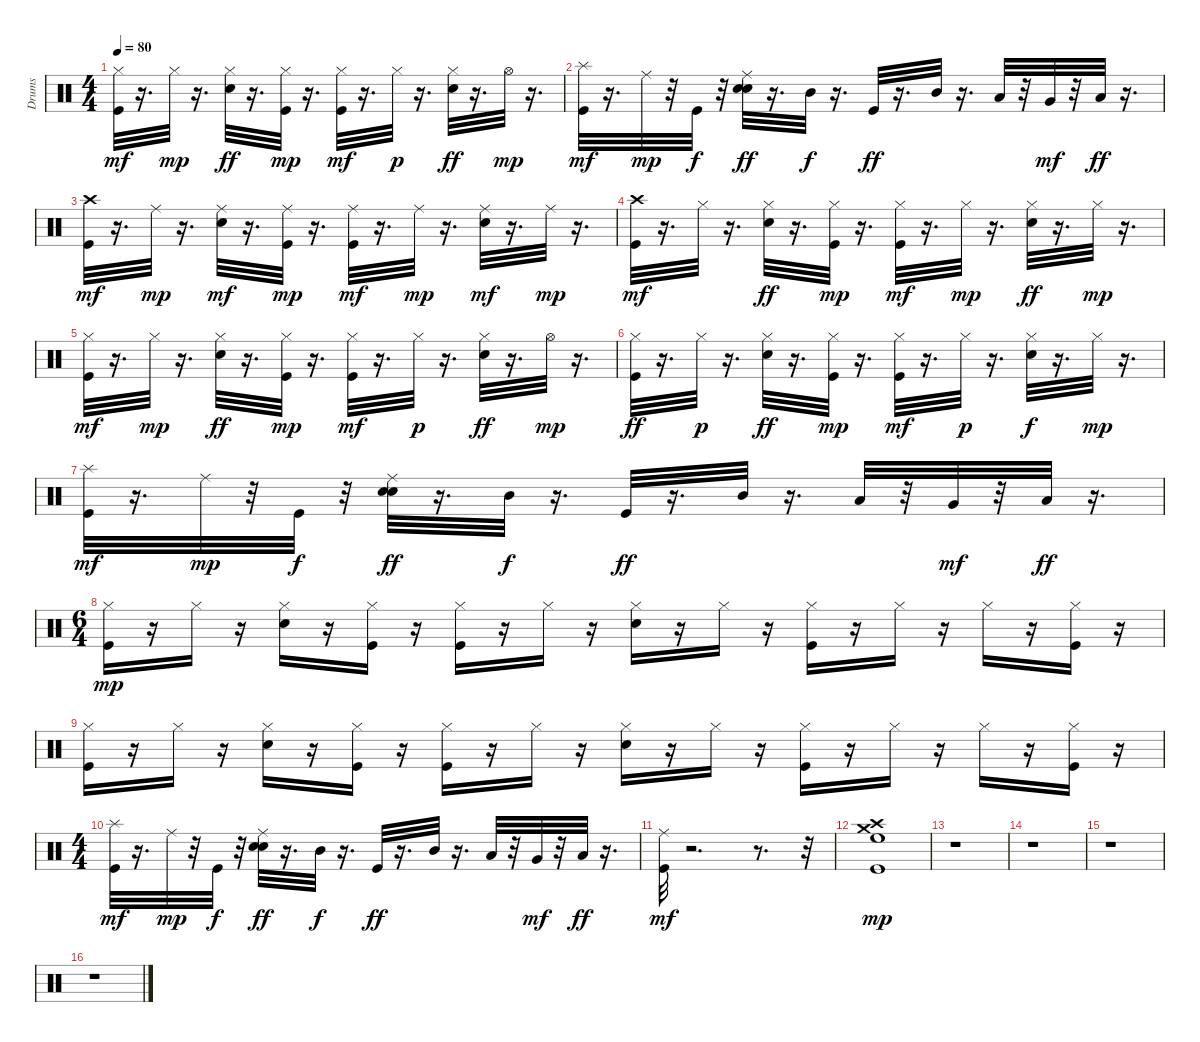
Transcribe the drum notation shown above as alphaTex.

\track ("Drums" "Drums") {instrument percussion}
\staff {score}
\articulation defaults
\ts (4 4)
\tempo 80
\clef neutral
\ks c
("Kick (hit)" "Hi-Hat (closed)").32{dy mf} r.16{d} "Hi-Hat (closed)".32{dy mp} r.16{d} ("Electric Snare (hit)" "Hi-Hat (closed)").32{dy ff} r.16{d} ("Kick (hit)" "Hi-Hat (closed)").32{dy mp} r.16{d} ("Kick (hit)" "Hi-Hat (closed)").32{dy mf} r.16{d} "Hi-Hat (closed)".32{dy p} r.16{d} ("Electric Snare (hit)" "Hi-Hat (closed)").32{dy ff} r.16{d} "Hi-Hat (open)".32{dy mp} r.16{d} |
("Kick (hit)" "Splash (hit)").32{dy mf} r.16{d} "Ride (middle)".32{dy mp} r.32 "Kick (hit)".32{dy f} r.32 ("Snare (hit) 2" "Ride (middle)" "Electric Snare (hit)").32{dy ff} r.16{d} "Mid Tom (hit)".32{dy f} r.16{d} "Kick (hit)".32{dy ff} r.16{d} "Mid Tom (hit)".32 r.16{d} "Low Tom (hit)".32 r.32 "Very Low Tom (hit)".32{dy mf} r.32 "Low Floor Tom (hit)".32{dy ff} r.16{d} |
("Kick (hit)" "Crash high (hit)").32{dy mf} r.16{d} "Ride (middle)".32{dy mp} r.16{d} ("Electric Snare (hit)" "Ride (middle)").32{dy mf} r.16{d} ("Kick (hit)" "Ride (middle)").32{dy mp} r.16{d} ("Kick (hit)" "Ride (middle)").32{dy mf} r.16{d} "Ride (middle)".32{dy mp} r.16{d} ("Electric Snare (hit)" "Ride (middle)").32{dy mf} r.16{d} "Ride (middle)".32{dy mp} r.16{d} |
("Kick (hit)" "Crash high (hit)").32{dy mf} r.16{d} "Hi-Hat (closed)".32 r.16{d} ("Electric Snare (hit)" "Hi-Hat (closed)").32{dy ff} r.16{d} ("Kick (hit)" "Hi-Hat (closed)").32{dy mp} r.16{d} ("Kick (hit)" "Hi-Hat (closed)").32{dy mf} r.16{d} "Hi-Hat (closed)".32{dy mp} r.16{d} ("Electric Snare (hit)" "Hi-Hat (closed)").32{dy ff} r.16{d} "Hi-Hat (closed)".32{dy mp} r.16{d} |
("Kick (hit)" "Hi-Hat (closed)").32{dy mf} r.16{d} "Hi-Hat (closed)".32{dy mp} r.16{d} ("Electric Snare (hit)" "Hi-Hat (closed)").32{dy ff} r.16{d} ("Kick (hit)" "Hi-Hat (closed)").32{dy mp} r.16{d} ("Kick (hit)" "Hi-Hat (closed)").32{dy mf} r.16{d} "Hi-Hat (closed)".32{dy p} r.16{d} ("Electric Snare (hit)" "Hi-Hat (closed)").32{dy ff} r.16{d} "Hi-Hat (open)".32{dy mp} r.16{d} |
("Kick (hit)" "Hi-Hat (closed)").32{dy ff} r.16{d} "Hi-Hat (closed)".32{dy p} r.16{d} ("Electric Snare (hit)" "Hi-Hat (closed)").32{dy ff} r.16{d} ("Kick (hit)" "Hi-Hat (closed)").32{dy mp} r.16{d} ("Kick (hit)" "Hi-Hat (closed)").32{dy mf} r.16{d} "Hi-Hat (closed)".32{dy p} r.16{d} ("Electric Snare (hit)" "Hi-Hat (closed)").32{dy f} r.16{d} "Hi-Hat (closed)".32{dy mp} r.16{d} |
("Kick (hit)" "Splash (hit)").32{dy mf} r.16{d} "Ride (middle)".32{dy mp} r.32 "Kick (hit)".32{dy f} r.32 ("Snare (hit) 2" "Ride (middle)" "Electric Snare (hit)").32{dy ff} r.16{d} "Mid Tom (hit)".32{dy f} r.16{d} "Kick (hit)".32{dy ff} r.16{d} "Mid Tom (hit)".32 r.16{d} "Low Tom (hit)".32 r.32 "Very Low Tom (hit)".32{dy mf} r.32 "Low Floor Tom (hit)".32{dy ff} r.16{d} |
\ts (6 4)
("Kick (hit)" "Hi-Hat (closed)").16{dy mp} r.16 "Hi-Hat (closed)".16 r.16 ("Electric Snare (hit)" "Hi-Hat (closed)").16 r.16 ("Kick (hit)" "Hi-Hat (closed)").16 r.16 ("Kick (hit)" "Hi-Hat (closed)").16 r.16 "Hi-Hat (closed)".16 r.16 ("Electric Snare (hit)" "Hi-Hat (closed)").16 r.16 "Hi-Hat (closed)".16 r.16 ("Kick (hit)" "Hi-Hat (closed)").16 r.16 "Hi-Hat (closed)".16 r.16 "Hi-Hat (closed)".16 r.16 ("Kick (hit)" "Hi-Hat (closed)").16 r.16 |
("Kick (hit)" "Hi-Hat (closed)").16 r.16 "Hi-Hat (closed)".16 r.16 ("Electric Snare (hit)" "Hi-Hat (closed)").16 r.16 ("Kick (hit)" "Hi-Hat (closed)").16 r.16 ("Kick (hit)" "Hi-Hat (closed)").16 r.16 "Hi-Hat (closed)".16 r.16 ("Electric Snare (hit)" "Hi-Hat (closed)").16 r.16 "Hi-Hat (closed)".16 r.16 ("Kick (hit)" "Hi-Hat (closed)").16 r.16 "Hi-Hat (closed)".16 r.16 "Hi-Hat (closed)".16 r.16 ("Kick (hit)" "Hi-Hat (closed)").16 r.16 |
\ts (4 4)
("Kick (hit)" "Splash (hit)").32{dy mf} r.16{d} "Ride (middle)".32{dy mp} r.32 "Kick (hit)".32{dy f} r.32 ("Snare (hit) 2" "Ride (middle)" "Electric Snare (hit)").32{dy ff} r.16{d} "Mid Tom (hit)".32{dy f} r.16{d} "Kick (hit)".32{dy ff} r.16{d} "Mid Tom (hit)".32 r.16{d} "Low Tom (hit)".32 r.32 "Very Low Tom (hit)".32{dy mf} r.32 "Low Floor Tom (hit)".32{dy ff} r.16{d} |
("Kick (hit)" "Ride (middle)").32{dy mf} r.2{d} r.8{d} r.32 |
("Kick (hit)" "Crash high (hit)" "High Floor Tom (hit)" "Crash medium (hit)").1{dy mp} |
r.1 |
r.1 |
r.1 |
r.1
